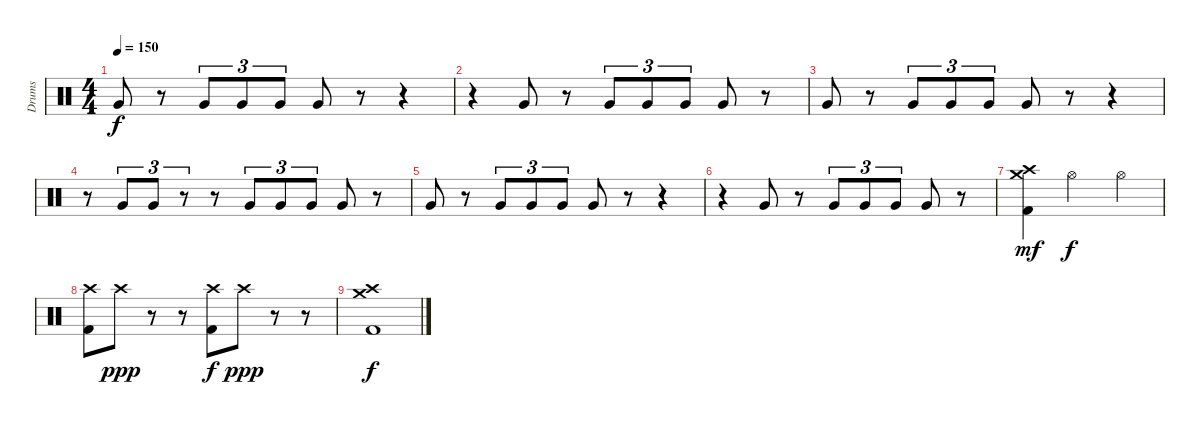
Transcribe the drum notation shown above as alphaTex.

\track ("Drums" "Drums") {instrument percussion}
\staff {score}
\articulation defaults
\ts (4 4)
\tempo 150
\clef neutral
\ks c "Very Low Tom (hit)".8{dy f}
r.8 "Very Low Tom (hit)".8{tu (3 2)} "Very Low Tom (hit)".8{tu (3 2)} "Very Low Tom (hit)".8{tu (3 2)} "Very Low Tom (hit)".8 r.8 r.4 |
r.4 "Very Low Tom (hit)".8 r.8 "Very Low Tom (hit)".8{tu (3 2)} "Very Low Tom (hit)".8{tu (3 2)} "Very Low Tom (hit)".8{tu (3 2)} "Very Low Tom (hit)".8 r.8 |
"Very Low Tom (hit)".8 r.8 "Very Low Tom (hit)".8{tu (3 2)} "Very Low Tom (hit)".8{tu (3 2)} "Very Low Tom (hit)".8{tu (3 2)} "Very Low Tom (hit)".8 r.8 r.4 |
r.8 "Very Low Tom (hit)".8{tu (3 2)} "Very Low Tom (hit)".8{tu (3 2)} r.8{tu (3 2)} r.8 "Very Low Tom (hit)".8{tu (3 2)} "Very Low Tom (hit)".8{tu (3 2)} "Very Low Tom (hit)".8{tu (3 2)} "Very Low Tom (hit)".8 r.8 |
"Very Low Tom (hit)".8 r.8 "Very Low Tom (hit)".8{tu (3 2)} "Very Low Tom (hit)".8{tu (3 2)} "Very Low Tom (hit)".8{tu (3 2)} "Very Low Tom (hit)".8 r.8 r.4 |
r.4 "Very Low Tom (hit)".8 r.8 "Very Low Tom (hit)".8{tu (3 2)} "Very Low Tom (hit)".8{tu (3 2)} "Very Low Tom (hit)".8{tu (3 2)} "Very Low Tom (hit)".8 r.8 |
("Crash medium (hit)" "Crash high (hit)" "Kick (hit) 2").4{dy mf} "Hi-Hat (open)".2{dy f} "Hi-Hat (open)".4 |
("Crash high (hit)" "Kick (hit) 2").8 "Crash high (hit)".8{dy ppp} r.8 r.8 ("Crash high (hit)" "Kick (hit) 2").8{dy f} "Crash high (hit)".8{dy ppp} r.8 r.8 |
("Crash medium (hit)" "Crash high (hit)" "Kick (hit) 2").1{dy f}
